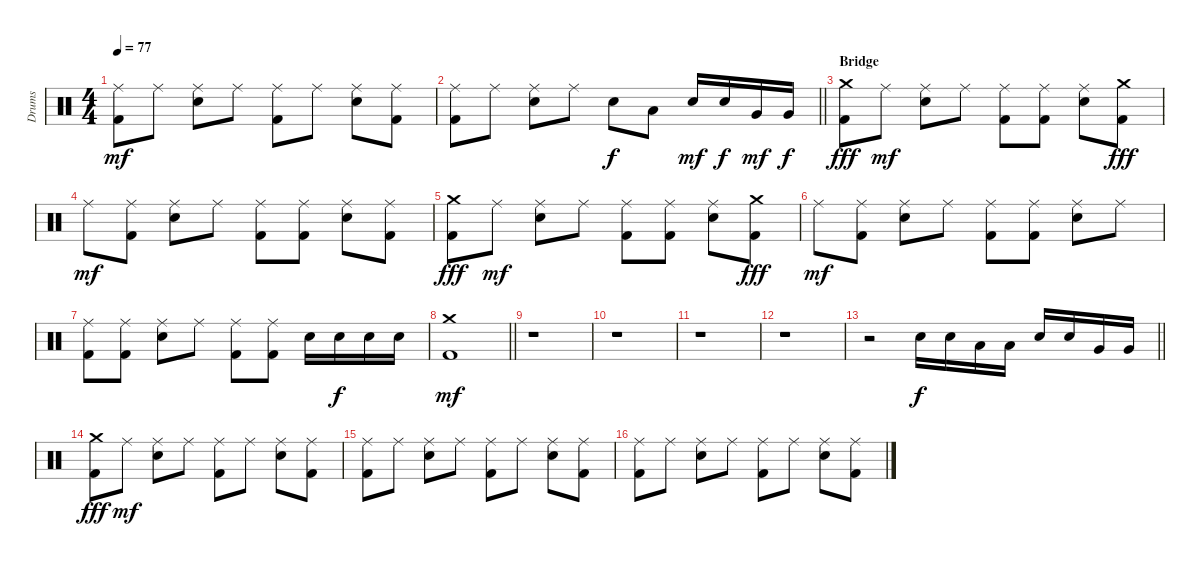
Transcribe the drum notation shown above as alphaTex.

\track ("Drums" "Drums") {instrument percussion}
\staff {score}
\articulation defaults
\ts (4 4)
\tempo 77
\clef neutral
\ks c
("Ride (middle)" "Kick (hit) 2").8{dy mf} "Ride (middle)".8 ("Ride (middle)" "Electric Snare (hit)").8 "Ride (middle)".8 ("Ride (middle)" "Kick (hit) 2").8 "Ride (middle)".8 ("Ride (middle)" "Electric Snare (hit)").8 ("Ride (middle)" "Kick (hit) 2").8 |
\barLineRight lightlight
("Ride (middle)" "Kick (hit) 2").8 "Ride (middle)".8 ("Ride (middle)" "Electric Snare (hit)").8 "Ride (middle)".8 "Electric Snare (hit)".8{dy f} "Low Tom (hit)".8 "Electric Snare (hit)".16{dy mf} "Electric Snare (hit)".16{dy f} "Very Low Tom (hit)".16{dy mf} "Very Low Tom (hit)".16{dy f} |
\section ("" "Bridge")
("Crash medium (hit)" "Kick (hit) 2").8{dy fff} "Ride (middle)".8{dy mf} ("Ride (middle)" "Electric Snare (hit)").8 "Ride (middle)".8 ("Ride (middle)" "Kick (hit) 2").8 ("Ride (middle)" "Kick (hit) 2").8 ("Ride (middle)" "Electric Snare (hit)").8 ("Crash medium (hit)" "Kick (hit) 2").8{dy fff} |
"Ride (middle)".8{dy mf} ("Ride (middle)" "Kick (hit) 2").8 ("Ride (middle)" "Electric Snare (hit)").8 "Ride (middle)".8 ("Ride (middle)" "Kick (hit) 2").8 ("Ride (middle)" "Kick (hit) 2").8 ("Ride (middle)" "Electric Snare (hit)").8 ("Ride (middle)" "Kick (hit) 2").8 |
("Crash medium (hit)" "Kick (hit) 2").8{dy fff} "Ride (middle)".8{dy mf} ("Ride (middle)" "Electric Snare (hit)").8 "Ride (middle)".8 ("Ride (middle)" "Kick (hit) 2").8 ("Ride (middle)" "Kick (hit) 2").8 ("Ride (middle)" "Electric Snare (hit)").8 ("Crash medium (hit)" "Kick (hit) 2").8{dy fff} |
"Ride (middle)".8{dy mf} ("Ride (middle)" "Kick (hit) 2").8 ("Ride (middle)" "Electric Snare (hit)").8 "Ride (middle)".8 ("Ride (middle)" "Kick (hit) 2").8 ("Ride (middle)" "Kick (hit) 2").8 ("Ride (middle)" "Electric Snare (hit)").8 "Ride (middle)".8 |
("Ride (middle)" "Kick (hit) 2").8 ("Ride (middle)" "Kick (hit) 2").8 ("Ride (middle)" "Electric Snare (hit)").8 "Ride (middle)".8 ("Ride (middle)" "Kick (hit) 2").8 ("Ride (middle)" "Kick (hit) 2").8 "Electric Snare (hit)".16 "Electric Snare (hit)".16{dy f} "Electric Snare (hit)".16 "Electric Snare (hit)".16 |
\barLineRight lightlight
("Crash medium (hit)" "Kick (hit) 2").1{dy mf} |
r.1 |
r.1 |
r.1 |
r.1 |
\barLineRight lightlight
r.2 "Electric Snare (hit)".16{dy f} "Electric Snare (hit)".16 "Low Tom (hit)".16 "Low Tom (hit)".16 "Electric Snare (hit)".16 "Electric Snare (hit)".16 "Very Low Tom (hit)".16 "Very Low Tom (hit)".16 |
("Crash medium (hit)" "Kick (hit) 2").8{dy fff} "Ride (middle)".8{dy mf} ("Ride (middle)" "Electric Snare (hit)").8 "Ride (middle)".8 ("Ride (middle)" "Kick (hit) 2").8 "Ride (middle)".8 ("Ride (middle)" "Electric Snare (hit)").8 ("Ride (middle)" "Kick (hit) 2").8 |
("Ride (middle)" "Kick (hit) 2").8 "Ride (middle)".8 ("Ride (middle)" "Electric Snare (hit)").8 "Ride (middle)".8 ("Ride (middle)" "Kick (hit) 2").8 "Ride (middle)".8 ("Ride (middle)" "Electric Snare (hit)").8 ("Ride (middle)" "Kick (hit) 2").8 |
("Ride (middle)" "Kick (hit) 2").8 "Ride (middle)".8 ("Ride (middle)" "Electric Snare (hit)").8 "Ride (middle)".8 ("Ride (middle)" "Kick (hit) 2").8 "Ride (middle)".8 ("Ride (middle)" "Electric Snare (hit)").8 ("Ride (middle)" "Kick (hit) 2").8
